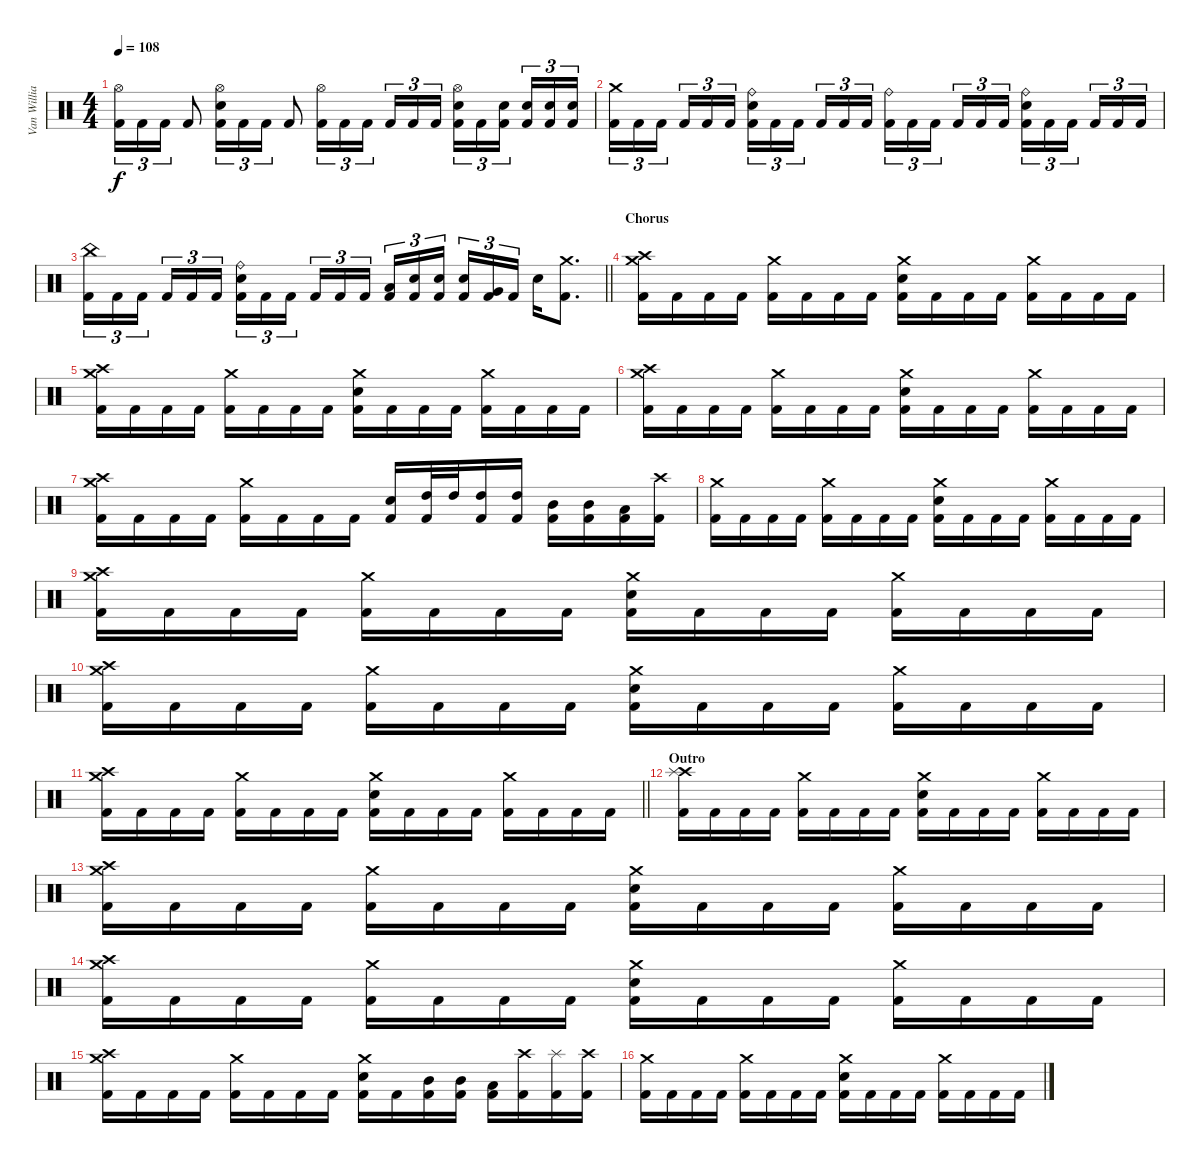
\track ("Van Williams" "Van Willia") {instrument percussion}
\staff {score}
\articulation defaults
\ts (4 4)
\tempo 108
\clef neutral
\ks c
("Hi-Hat (open)" "Kick (hit) 2").16{tu (3 2) dy f} "Kick (hit) 2".16{tu (3 2)} "Kick (hit) 2".16{tu (3 2)} "Kick (hit) 2".8 ("Hi-Hat (open)" "Snare (hit) 2" "Kick (hit) 2").16{tu (3 2)} "Kick (hit) 2".16{tu (3 2)} "Kick (hit) 2".16{tu (3 2)} "Kick (hit) 2".8 ("Hi-Hat (open)" "Kick (hit) 2").16{tu (3 2)} "Kick (hit) 2".16{tu (3 2)} "Kick (hit) 2".16{tu (3 2) beam splitsecondary} "Kick (hit) 2".16{tu (3 2)} "Kick (hit) 2".16{tu (3 2)} "Kick (hit) 2".16{tu (3 2)} ("Hi-Hat (open)" "Snare (hit) 2" "Kick (hit) 2").16{tu (3 2)} "Kick (hit) 2".16{tu (3 2)} ("Snare (hit) 2" "Kick (hit) 2").16{tu (3 2) beam splitsecondary} ("Snare (hit) 2" "Kick (hit) 2").16{tu (3 2)} ("Snare (hit) 2" "Kick (hit) 2").16{tu (3 2)} ("Snare (hit) 2" "Kick (hit) 2").16{tu (3 2)} |
("Crash medium (hit)" "Kick (hit) 2").16{tu (3 2)} "Kick (hit) 2".16{tu (3 2)} "Kick (hit) 2".16{tu (3 2) beam splitsecondary} "Kick (hit) 2".16{tu (3 2)} "Kick (hit) 2".16{tu (3 2)} "Kick (hit) 2".16{tu (3 2)} ("Ride (bell)" "Snare (hit) 2" "Kick (hit) 2").16{tu (3 2)} "Kick (hit) 2".16{tu (3 2)} "Kick (hit) 2".16{tu (3 2) beam splitsecondary} "Kick (hit) 2".16{tu (3 2)} "Kick (hit) 2".16{tu (3 2)} "Kick (hit) 2".16{tu (3 2)} ("Ride (bell)" "Kick (hit) 2").16{tu (3 2)} "Kick (hit) 2".16{tu (3 2)} "Kick (hit) 2".16{tu (3 2) beam splitsecondary} "Kick (hit) 2".16{tu (3 2)} "Kick (hit) 2".16{tu (3 2)} "Kick (hit) 2".16{tu (3 2)} ("Ride (bell)" "Snare (hit) 2" "Kick (hit) 2").16{tu (3 2)} "Kick (hit) 2".16{tu (3 2)} "Kick (hit) 2".16{tu (3 2) beam splitsecondary} "Kick (hit) 2".16{tu (3 2)} "Kick (hit) 2".16{tu (3 2)} "Kick (hit) 2".16{tu (3 2)} |
\barLineRight lightlight
("China (hit)" "Kick (hit) 2").16{tu (3 2)} "Kick (hit) 2".16{tu (3 2)} "Kick (hit) 2".16{tu (3 2) beam splitsecondary} "Kick (hit) 2".16{tu (3 2)} "Kick (hit) 2".16{tu (3 2)} "Kick (hit) 2".16{tu (3 2)} ("Ride (bell)" "Snare (hit) 2" "Kick (hit) 2").16{tu (3 2)} "Kick (hit) 2".16{tu (3 2)} "Kick (hit) 2".16{tu (3 2) beam splitsecondary} "Kick (hit) 2".16{tu (3 2)} "Kick (hit) 2".16{tu (3 2)} "Kick (hit) 2".16{tu (3 2)} ("Low Tom (hit)" "Kick (hit) 2").16{tu (3 2)} ("Snare (hit) 2" "Kick (hit) 2").16{tu (3 2)} ("Snare (hit) 2" "Kick (hit) 2").16{tu (3 2) beam splitsecondary} ("Snare (hit) 2" "Kick (hit) 2").16{tu (3 2)} ("Very Low Tom (hit)" "Kick (hit) 2").16{tu (3 2)} "Kick (hit) 2".16{tu (3 2)} "Snare (hit) 2".16 ("Crash medium (hit)" "Kick (hit) 2").8{d} |
\section ("" "Chorus")
("Crash high (hit)" "Crash medium (hit)" "Kick (hit) 2").16 "Kick (hit) 2".16 "Kick (hit) 2".16 "Kick (hit) 2".16 ("Crash medium (hit)" "Kick (hit) 2").16 "Kick (hit) 2".16 "Kick (hit) 2".16 "Kick (hit) 2".16 ("Crash medium (hit)" "Snare (hit) 2" "Kick (hit) 2").16 "Kick (hit) 2".16 "Kick (hit) 2".16 "Kick (hit) 2".16 ("Crash medium (hit)" "Kick (hit) 2").16 "Kick (hit) 2".16 "Kick (hit) 2".16 "Kick (hit) 2".16 |
("Crash high (hit)" "Crash medium (hit)" "Kick (hit) 2").16 "Kick (hit) 2".16 "Kick (hit) 2".16 "Kick (hit) 2".16 ("Crash medium (hit)" "Kick (hit) 2").16 "Kick (hit) 2".16 "Kick (hit) 2".16 "Kick (hit) 2".16 ("Crash medium (hit)" "Snare (hit) 2" "Kick (hit) 2").16 "Kick (hit) 2".16 "Kick (hit) 2".16 "Kick (hit) 2".16 ("Crash medium (hit)" "Kick (hit) 2").16 "Kick (hit) 2".16 "Kick (hit) 2".16 "Kick (hit) 2".16 |
("Crash high (hit)" "Crash medium (hit)" "Kick (hit) 2").16 "Kick (hit) 2".16 "Kick (hit) 2".16 "Kick (hit) 2".16 ("Crash medium (hit)" "Kick (hit) 2").16 "Kick (hit) 2".16 "Kick (hit) 2".16 "Kick (hit) 2".16 ("Crash medium (hit)" "Snare (hit) 2" "Kick (hit) 2").16 "Kick (hit) 2".16 "Kick (hit) 2".16 "Kick (hit) 2".16 ("Crash medium (hit)" "Kick (hit) 2").16 "Kick (hit) 2".16 "Kick (hit) 2".16 "Kick (hit) 2".16 |
("Crash high (hit)" "Crash medium (hit)" "Kick (hit) 2").16 "Kick (hit) 2".16 "Kick (hit) 2".16 "Kick (hit) 2".16 ("Crash medium (hit)" "Kick (hit) 2").16 "Kick (hit) 2".16 "Kick (hit) 2".16 "Kick (hit) 2".16 ("Snare (hit) 2" "Kick (hit) 2").16 ("High Tom (hit)" "Kick (hit) 2").32 "High Tom (hit)".32 ("High Tom (hit)" "Kick (hit) 2").16 ("High Tom (hit)" "Kick (hit) 2").16 ("Mid Tom (hit)" "Kick (hit) 2").16 ("Mid Tom (hit)" "Kick (hit) 2").16 ("Low Tom (hit)" "Kick (hit) 2").16 ("Crash high (hit)" "Kick (hit) 2").16 |
("Crash medium (hit)" "Kick (hit) 2").16 "Kick (hit) 2".16 "Kick (hit) 2".16 "Kick (hit) 2".16 ("Crash medium (hit)" "Kick (hit) 2").16 "Kick (hit) 2".16 "Kick (hit) 2".16 "Kick (hit) 2".16 ("Crash medium (hit)" "Snare (hit) 2" "Kick (hit) 2").16 "Kick (hit) 2".16 "Kick (hit) 2".16 "Kick (hit) 2".16 ("Crash medium (hit)" "Kick (hit) 2").16 "Kick (hit) 2".16 "Kick (hit) 2".16 "Kick (hit) 2".16 |
("Crash high (hit)" "Crash medium (hit)" "Kick (hit) 2").16 "Kick (hit) 2".16 "Kick (hit) 2".16 "Kick (hit) 2".16 ("Crash medium (hit)" "Kick (hit) 2").16 "Kick (hit) 2".16 "Kick (hit) 2".16 "Kick (hit) 2".16 ("Crash medium (hit)" "Snare (hit) 2" "Kick (hit) 2").16 "Kick (hit) 2".16 "Kick (hit) 2".16 "Kick (hit) 2".16 ("Crash medium (hit)" "Kick (hit) 2").16 "Kick (hit) 2".16 "Kick (hit) 2".16 "Kick (hit) 2".16 |
("Crash high (hit)" "Crash medium (hit)" "Kick (hit) 2").16 "Kick (hit) 2".16 "Kick (hit) 2".16 "Kick (hit) 2".16 ("Crash medium (hit)" "Kick (hit) 2").16 "Kick (hit) 2".16 "Kick (hit) 2".16 "Kick (hit) 2".16 ("Crash medium (hit)" "Snare (hit) 2" "Kick (hit) 2").16 "Kick (hit) 2".16 "Kick (hit) 2".16 "Kick (hit) 2".16 ("Crash medium (hit)" "Kick (hit) 2").16 "Kick (hit) 2".16 "Kick (hit) 2".16 "Kick (hit) 2".16 |
\barLineRight lightlight
("Crash high (hit)" "Crash medium (hit)" "Kick (hit) 2").16 "Kick (hit) 2".16 "Kick (hit) 2".16 "Kick (hit) 2".16 ("Crash medium (hit)" "Kick (hit) 2").16 "Kick (hit) 2".16 "Kick (hit) 2".16 "Kick (hit) 2".16 ("Crash medium (hit)" "Snare (hit) 2" "Kick (hit) 2").16 "Kick (hit) 2".16 "Kick (hit) 2".16 "Kick (hit) 2".16 ("Crash medium (hit)" "Kick (hit) 2").16 "Kick (hit) 2".16 "Kick (hit) 2".16 "Kick (hit) 2".16 |
\section ("" "Outro")
("Crash high (hit)" "Splash (hit)" "Kick (hit) 2").16 "Kick (hit) 2".16 "Kick (hit) 2".16 "Kick (hit) 2".16 ("Crash medium (hit)" "Kick (hit) 2").16 "Kick (hit) 2".16 "Kick (hit) 2".16 "Kick (hit) 2".16 ("Crash medium (hit)" "Snare (hit) 2" "Kick (hit) 2").16 "Kick (hit) 2".16 "Kick (hit) 2".16 "Kick (hit) 2".16 ("Crash medium (hit)" "Kick (hit) 2").16 "Kick (hit) 2".16 "Kick (hit) 2".16 "Kick (hit) 2".16 |
("Crash high (hit)" "Crash medium (hit)" "Kick (hit) 2").16 "Kick (hit) 2".16 "Kick (hit) 2".16 "Kick (hit) 2".16 ("Crash medium (hit)" "Kick (hit) 2").16 "Kick (hit) 2".16 "Kick (hit) 2".16 "Kick (hit) 2".16 ("Crash medium (hit)" "Snare (hit) 2" "Kick (hit) 2").16 "Kick (hit) 2".16 "Kick (hit) 2".16 "Kick (hit) 2".16 ("Crash medium (hit)" "Kick (hit) 2").16 "Kick (hit) 2".16 "Kick (hit) 2".16 "Kick (hit) 2".16 |
("Crash high (hit)" "Crash medium (hit)" "Kick (hit) 2").16 "Kick (hit) 2".16 "Kick (hit) 2".16 "Kick (hit) 2".16 ("Crash medium (hit)" "Kick (hit) 2").16 "Kick (hit) 2".16 "Kick (hit) 2".16 "Kick (hit) 2".16 ("Crash medium (hit)" "Snare (hit) 2" "Kick (hit) 2").16 "Kick (hit) 2".16 "Kick (hit) 2".16 "Kick (hit) 2".16 ("Crash medium (hit)" "Kick (hit) 2").16 "Kick (hit) 2".16 "Kick (hit) 2".16 "Kick (hit) 2".16 |
("Crash high (hit)" "Crash medium (hit)" "Kick (hit) 2").16 "Kick (hit) 2".16 "Kick (hit) 2".16 "Kick (hit) 2".16 ("Crash medium (hit)" "Kick (hit) 2").16 "Kick (hit) 2".16 "Kick (hit) 2".16 "Kick (hit) 2".16 ("Crash medium (hit)" "Snare (hit) 2" "Kick (hit) 2").16 "Kick (hit) 2".16 ("Mid Tom (hit)" "Kick (hit) 2").16 ("Mid Tom (hit)" "Kick (hit) 2").16 ("Low Tom (hit)" "Kick (hit) 2").16 ("Crash high (hit)" "Kick (hit) 2").16 ("Splash (hit)" "Kick (hit) 2").16 ("Crash high (hit)" "Kick (hit) 2").16 |
("Crash medium (hit)" "Kick (hit) 2").16 "Kick (hit) 2".16 "Kick (hit) 2".16 "Kick (hit) 2".16 ("Crash medium (hit)" "Kick (hit) 2").16 "Kick (hit) 2".16 "Kick (hit) 2".16 "Kick (hit) 2".16 ("Crash medium (hit)" "Snare (hit) 2" "Kick (hit) 2").16 "Kick (hit) 2".16 "Kick (hit) 2".16 "Kick (hit) 2".16 ("Crash medium (hit)" "Kick (hit) 2").16 "Kick (hit) 2".16 "Kick (hit) 2".16 "Kick (hit) 2".16
